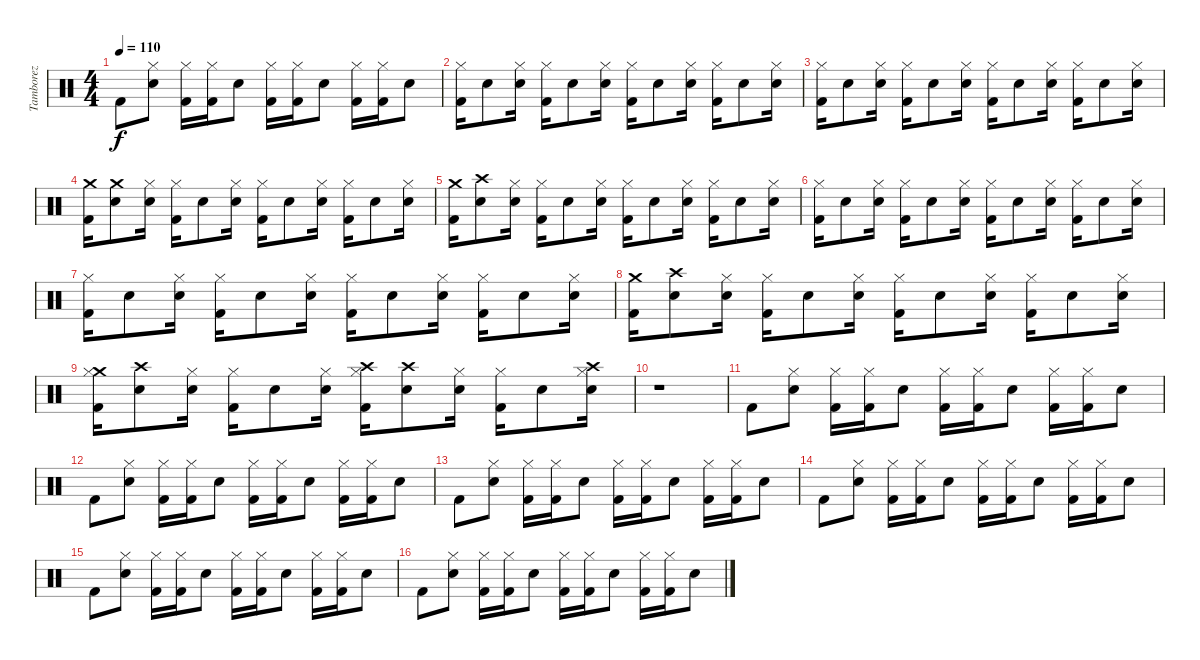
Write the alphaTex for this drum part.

\track ("Tamborez" "Tamborez") {instrument percussion}
\staff {score}
\articulation defaults
\ts (4 4)
\tempo 110
\clef neutral
\ks c "Kick (hit) 2".8{dy f}
("Electric Snare (hit)" "Hi-Hat (closed)").8 ("Kick (hit) 2" "Hi-Hat (closed)").16 ("Kick (hit) 2" "Hi-Hat (closed)").16 "Electric Snare (hit)".8 ("Kick (hit) 2" "Hi-Hat (closed)").16 ("Kick (hit) 2" "Hi-Hat (closed)").16 "Electric Snare (hit)".8 ("Kick (hit) 2" "Hi-Hat (closed)").16 ("Kick (hit) 2" "Hi-Hat (closed)").16 "Electric Snare (hit)".8 |
("Hi-Hat (closed)" "Kick (hit) 2").16 "Electric Snare (hit)".8 ("Hi-Hat (closed)" "Electric Snare (hit)").16 ("Hi-Hat (closed)" "Kick (hit) 2").16 "Electric Snare (hit)".8 ("Hi-Hat (closed)" "Electric Snare (hit)").16 ("Hi-Hat (closed)" "Kick (hit) 2").16 "Electric Snare (hit)".8 ("Hi-Hat (closed)" "Electric Snare (hit)").16 ("Hi-Hat (closed)" "Kick (hit) 2").16 "Electric Snare (hit)".8 ("Hi-Hat (closed)" "Electric Snare (hit)").16 |
("Hi-Hat (closed)" "Kick (hit) 2").16 "Electric Snare (hit)".8 ("Hi-Hat (closed)" "Electric Snare (hit)").16 ("Hi-Hat (closed)" "Kick (hit) 2").16 "Electric Snare (hit)".8 ("Hi-Hat (closed)" "Electric Snare (hit)").16 ("Hi-Hat (closed)" "Kick (hit) 2").16 "Electric Snare (hit)".8 ("Hi-Hat (closed)" "Electric Snare (hit)").16 ("Hi-Hat (closed)" "Kick (hit) 2").16 "Electric Snare (hit)".8 ("Hi-Hat (closed)" "Electric Snare (hit)").16 |
("Crash medium (hit)" "Kick (hit) 2").16 ("Crash medium (hit)" "Electric Snare (hit)").8 ("Hi-Hat (closed)" "Electric Snare (hit)").16 ("Hi-Hat (closed)" "Kick (hit) 2").16 "Electric Snare (hit)".8 ("Hi-Hat (closed)" "Electric Snare (hit)").16 ("Hi-Hat (closed)" "Kick (hit) 2").16 "Electric Snare (hit)".8 ("Hi-Hat (closed)" "Electric Snare (hit)").16 ("Hi-Hat (closed)" "Kick (hit) 2").16 "Electric Snare (hit)".8 ("Hi-Hat (closed)" "Electric Snare (hit)").16 |
("Crash medium (hit)" "Kick (hit) 2").16 ("Crash high (hit)" "Electric Snare (hit)").8 ("Hi-Hat (closed)" "Electric Snare (hit)").16 ("Hi-Hat (closed)" "Kick (hit) 2").16 "Electric Snare (hit)".8 ("Hi-Hat (closed)" "Electric Snare (hit)").16 ("Hi-Hat (closed)" "Kick (hit) 2").16 "Electric Snare (hit)".8 ("Hi-Hat (closed)" "Electric Snare (hit)").16 ("Hi-Hat (closed)" "Kick (hit) 2").16 "Electric Snare (hit)".8 ("Hi-Hat (closed)" "Electric Snare (hit)").16 |
("Hi-Hat (closed)" "Kick (hit) 2").16 "Electric Snare (hit)".8 ("Hi-Hat (closed)" "Electric Snare (hit)").16 ("Hi-Hat (closed)" "Kick (hit) 2").16 "Electric Snare (hit)".8 ("Hi-Hat (closed)" "Electric Snare (hit)").16 ("Hi-Hat (closed)" "Kick (hit) 2").16 "Electric Snare (hit)".8 ("Hi-Hat (closed)" "Electric Snare (hit)").16 ("Hi-Hat (closed)" "Kick (hit) 2").16 "Electric Snare (hit)".8 ("Hi-Hat (closed)" "Electric Snare (hit)").16 |
("Hi-Hat (closed)" "Kick (hit) 2").16 "Electric Snare (hit)".8 ("Hi-Hat (closed)" "Electric Snare (hit)").16 ("Hi-Hat (closed)" "Kick (hit) 2").16 "Electric Snare (hit)".8 ("Hi-Hat (closed)" "Electric Snare (hit)").16 ("Hi-Hat (closed)" "Kick (hit) 2").16 "Electric Snare (hit)".8 ("Hi-Hat (closed)" "Electric Snare (hit)").16 ("Hi-Hat (closed)" "Kick (hit) 2").16 "Electric Snare (hit)".8 ("Hi-Hat (closed)" "Electric Snare (hit)").16 |
("Crash medium (hit)" "Kick (hit) 2").16 ("Crash high (hit)" "Electric Snare (hit)").8 ("Hi-Hat (closed)" "Electric Snare (hit)").16 ("Hi-Hat (closed)" "Kick (hit) 2").16 "Electric Snare (hit)".8 ("Hi-Hat (closed)" "Electric Snare (hit)").16 ("Hi-Hat (closed)" "Kick (hit) 2").16 "Electric Snare (hit)".8 ("Hi-Hat (closed)" "Electric Snare (hit)").16 ("Hi-Hat (closed)" "Kick (hit) 2").16 "Electric Snare (hit)".8 ("Hi-Hat (closed)" "Electric Snare (hit)").16 |
("Crash medium (hit)" "Hi-Hat (closed)" "Kick (hit) 2").16 ("Crash high (hit)" "Electric Snare (hit)").8 ("Hi-Hat (closed)" "Electric Snare (hit)").16 ("Hi-Hat (closed)" "Kick (hit) 2").16 "Electric Snare (hit)".8 ("Hi-Hat (closed)" "Electric Snare (hit)").16 ("Crash high (hit)" "Hi-Hat (closed)" "Kick (hit) 2").16 ("Crash high (hit)" "Electric Snare (hit)").8 ("Hi-Hat (closed)" "Electric Snare (hit)").16 ("Hi-Hat (closed)" "Kick (hit) 2").16 "Electric Snare (hit)".8 ("Crash high (hit)" "Hi-Hat (closed)" "Electric Snare (hit)").16 |
r.1 |
"Kick (hit) 2".8 ("Electric Snare (hit)" "Hi-Hat (closed)").8 ("Kick (hit) 2" "Hi-Hat (closed)").16 ("Kick (hit) 2" "Hi-Hat (closed)").16 "Electric Snare (hit)".8 ("Kick (hit) 2" "Hi-Hat (closed)").16 ("Kick (hit) 2" "Hi-Hat (closed)").16 "Electric Snare (hit)".8 ("Kick (hit) 2" "Hi-Hat (closed)").16 ("Kick (hit) 2" "Hi-Hat (closed)").16 "Electric Snare (hit)".8 |
"Kick (hit) 2".8 ("Electric Snare (hit)" "Hi-Hat (closed)").8 ("Kick (hit) 2" "Hi-Hat (closed)").16 ("Kick (hit) 2" "Hi-Hat (closed)").16 "Electric Snare (hit)".8 ("Kick (hit) 2" "Hi-Hat (closed)").16 ("Kick (hit) 2" "Hi-Hat (closed)").16 "Electric Snare (hit)".8 ("Kick (hit) 2" "Hi-Hat (closed)").16 ("Kick (hit) 2" "Hi-Hat (closed)").16 "Electric Snare (hit)".8 |
"Kick (hit) 2".8 ("Electric Snare (hit)" "Hi-Hat (closed)").8 ("Kick (hit) 2" "Hi-Hat (closed)").16 ("Kick (hit) 2" "Hi-Hat (closed)").16 "Electric Snare (hit)".8 ("Kick (hit) 2" "Hi-Hat (closed)").16 ("Kick (hit) 2" "Hi-Hat (closed)").16 "Electric Snare (hit)".8 ("Kick (hit) 2" "Hi-Hat (closed)").16 ("Kick (hit) 2" "Hi-Hat (closed)").16 "Electric Snare (hit)".8 |
"Kick (hit) 2".8 ("Electric Snare (hit)" "Hi-Hat (closed)").8 ("Kick (hit) 2" "Hi-Hat (closed)").16 ("Kick (hit) 2" "Hi-Hat (closed)").16 "Electric Snare (hit)".8 ("Kick (hit) 2" "Hi-Hat (closed)").16 ("Kick (hit) 2" "Hi-Hat (closed)").16 "Electric Snare (hit)".8 ("Kick (hit) 2" "Hi-Hat (closed)").16 ("Kick (hit) 2" "Hi-Hat (closed)").16 "Electric Snare (hit)".8 |
"Kick (hit) 2".8 ("Electric Snare (hit)" "Hi-Hat (closed)").8 ("Kick (hit) 2" "Hi-Hat (closed)").16 ("Kick (hit) 2" "Hi-Hat (closed)").16 "Electric Snare (hit)".8 ("Kick (hit) 2" "Hi-Hat (closed)").16 ("Kick (hit) 2" "Hi-Hat (closed)").16 "Electric Snare (hit)".8 ("Kick (hit) 2" "Hi-Hat (closed)").16 ("Kick (hit) 2" "Hi-Hat (closed)").16 "Electric Snare (hit)".8 |
"Kick (hit) 2".8 ("Electric Snare (hit)" "Hi-Hat (closed)").8 ("Kick (hit) 2" "Hi-Hat (closed)").16 ("Kick (hit) 2" "Hi-Hat (closed)").16 "Electric Snare (hit)".8 ("Kick (hit) 2" "Hi-Hat (closed)").16 ("Kick (hit) 2" "Hi-Hat (closed)").16 "Electric Snare (hit)".8 ("Kick (hit) 2" "Hi-Hat (closed)").16 ("Kick (hit) 2" "Hi-Hat (closed)").16 "Electric Snare (hit)".8
